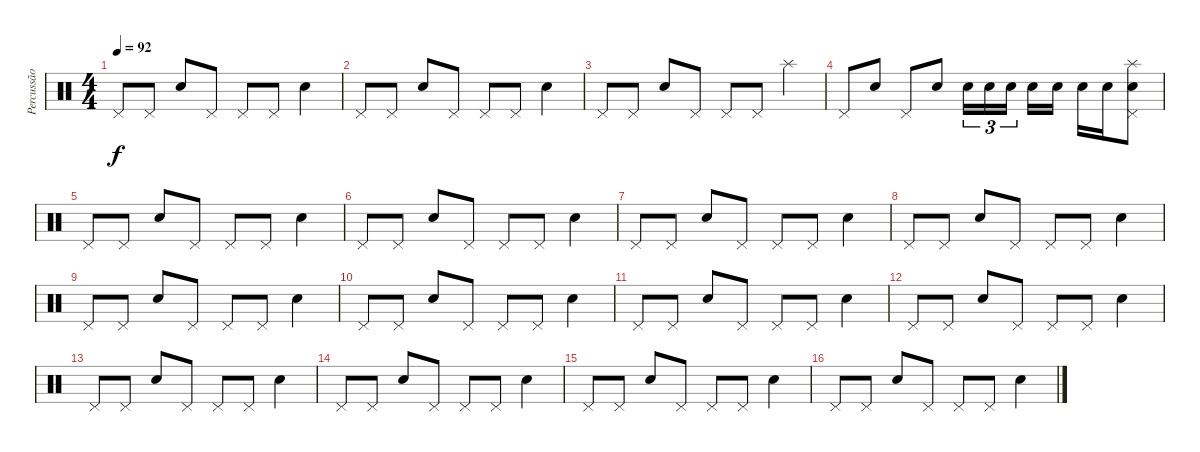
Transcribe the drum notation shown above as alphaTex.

\track ("Percussão" "Percussão") {instrument percussion}
\staff {score}
\articulation defaults
\ts (4 4)
\tempo 92
\clef neutral
\ks c "Pedal Hi-Hat (hit)".8{dy f} "Pedal Hi-Hat (hit)".8 "Electric Snare (hit)".8 "Pedal Hi-Hat (hit)".8 "Pedal Hi-Hat (hit)".8 "Pedal Hi-Hat (hit)".8 "Electric Snare (hit)".4
|
"Pedal Hi-Hat (hit)".8 "Pedal Hi-Hat (hit)".8 "Electric Snare (hit)".8 "Pedal Hi-Hat (hit)".8 "Pedal Hi-Hat (hit)".8 "Pedal Hi-Hat (hit)".8 "Electric Snare (hit)".4 |
"Pedal Hi-Hat (hit)".8 "Pedal Hi-Hat (hit)".8 "Electric Snare (hit)".8 "Pedal Hi-Hat (hit)".8 "Pedal Hi-Hat (hit)".8 "Pedal Hi-Hat (hit)".8 "Splash (hit)".4 |
"Pedal Hi-Hat (hit)".8 "Electric Snare (hit)".8 "Pedal Hi-Hat (hit)".8 "Electric Snare (hit)".8 "Electric Snare (hit)".16{tu (3 2)} "Electric Snare (hit)".16{tu (3 2)} "Electric Snare (hit)".16{tu (3 2)} "Electric Snare (hit)".16 "Electric Snare (hit)".16 "Electric Snare (hit)".16 "Electric Snare (hit)".16 ("Splash (hit)" "Pedal Hi-Hat (hit)" "Electric Snare (hit)").8 |
"Pedal Hi-Hat (hit)".8 "Pedal Hi-Hat (hit)".8 "Electric Snare (hit)".8 "Pedal Hi-Hat (hit)".8 "Pedal Hi-Hat (hit)".8 "Pedal Hi-Hat (hit)".8 "Electric Snare (hit)".4 |
"Pedal Hi-Hat (hit)".8 "Pedal Hi-Hat (hit)".8 "Electric Snare (hit)".8 "Pedal Hi-Hat (hit)".8 "Pedal Hi-Hat (hit)".8 "Pedal Hi-Hat (hit)".8 "Electric Snare (hit)".4 |
"Pedal Hi-Hat (hit)".8 "Pedal Hi-Hat (hit)".8 "Electric Snare (hit)".8 "Pedal Hi-Hat (hit)".8 "Pedal Hi-Hat (hit)".8 "Pedal Hi-Hat (hit)".8 "Electric Snare (hit)".4 |
"Pedal Hi-Hat (hit)".8 "Pedal Hi-Hat (hit)".8 "Electric Snare (hit)".8 "Pedal Hi-Hat (hit)".8 "Pedal Hi-Hat (hit)".8 "Pedal Hi-Hat (hit)".8 "Electric Snare (hit)".4 |
"Pedal Hi-Hat (hit)".8 "Pedal Hi-Hat (hit)".8 "Electric Snare (hit)".8 "Pedal Hi-Hat (hit)".8 "Pedal Hi-Hat (hit)".8 "Pedal Hi-Hat (hit)".8 "Electric Snare (hit)".4 |
"Pedal Hi-Hat (hit)".8 "Pedal Hi-Hat (hit)".8 "Electric Snare (hit)".8 "Pedal Hi-Hat (hit)".8 "Pedal Hi-Hat (hit)".8 "Pedal Hi-Hat (hit)".8 "Electric Snare (hit)".4 |
"Pedal Hi-Hat (hit)".8 "Pedal Hi-Hat (hit)".8 "Electric Snare (hit)".8 "Pedal Hi-Hat (hit)".8 "Pedal Hi-Hat (hit)".8 "Pedal Hi-Hat (hit)".8 "Electric Snare (hit)".4 |
"Pedal Hi-Hat (hit)".8 "Pedal Hi-Hat (hit)".8 "Electric Snare (hit)".8 "Pedal Hi-Hat (hit)".8 "Pedal Hi-Hat (hit)".8 "Pedal Hi-Hat (hit)".8 "Electric Snare (hit)".4 |
"Pedal Hi-Hat (hit)".8 "Pedal Hi-Hat (hit)".8 "Electric Snare (hit)".8 "Pedal Hi-Hat (hit)".8 "Pedal Hi-Hat (hit)".8 "Pedal Hi-Hat (hit)".8 "Electric Snare (hit)".4 |
"Pedal Hi-Hat (hit)".8 "Pedal Hi-Hat (hit)".8 "Electric Snare (hit)".8 "Pedal Hi-Hat (hit)".8 "Pedal Hi-Hat (hit)".8 "Pedal Hi-Hat (hit)".8 "Electric Snare (hit)".4 |
"Pedal Hi-Hat (hit)".8 "Pedal Hi-Hat (hit)".8 "Electric Snare (hit)".8 "Pedal Hi-Hat (hit)".8 "Pedal Hi-Hat (hit)".8 "Pedal Hi-Hat (hit)".8 "Electric Snare (hit)".4 |
"Pedal Hi-Hat (hit)".8 "Pedal Hi-Hat (hit)".8 "Electric Snare (hit)".8 "Pedal Hi-Hat (hit)".8 "Pedal Hi-Hat (hit)".8 "Pedal Hi-Hat (hit)".8 "Electric Snare (hit)".4
